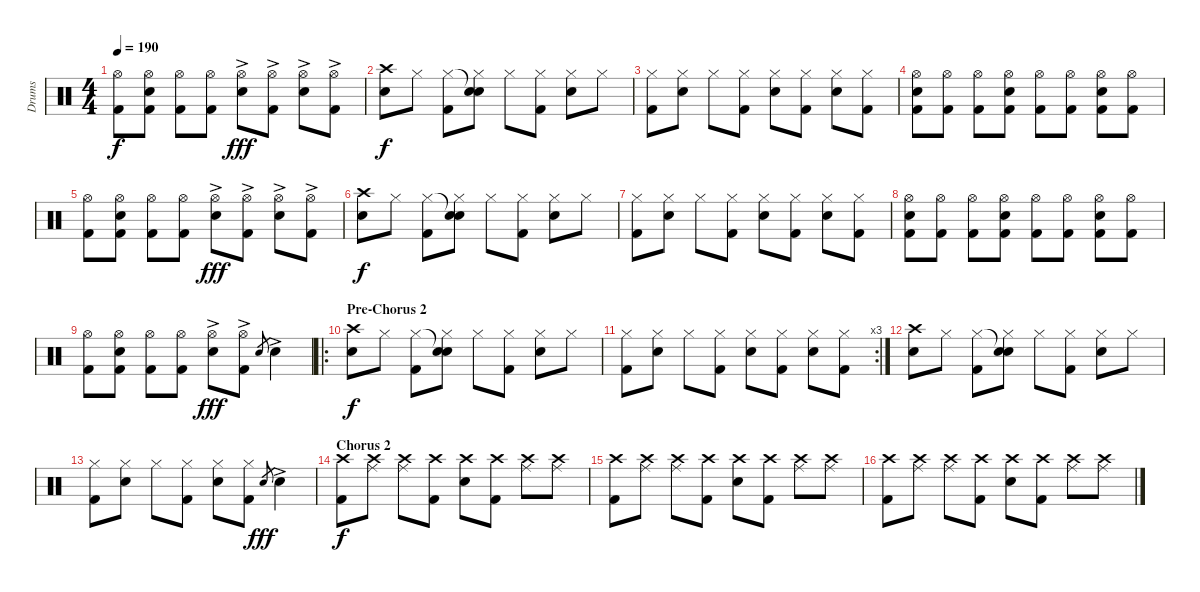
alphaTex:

\track ("Drums" "Drums") {instrument percussion}
\staff {score}
\articulation defaults
\ts (4 4)
\tempo 190
\clef neutral
\ks c
("Hi-Hat (open)" "Kick (hit) 2").8{dy f} ("Hi-Hat (open)" "Electric Snare (hit)" "Kick (hit) 2").8 ("Hi-Hat (open)" "Kick (hit) 2").8 ("Hi-Hat (open)" "Kick (hit) 2").8 ("Hi-Hat (open)" "Electric Snare (hit)"{ac}).8{dy fff} ("Hi-Hat (open)" "Kick (hit) 2"{ac}).8 ("Hi-Hat (open)" "Electric Snare (hit)"{ac}).8 ("Hi-Hat (open)" "Kick (hit) 2"{ac}).8 |
("Crash high (hit)" "Electric Snare (hit)").8{dy f} "Hi-Hat (closed)".8 ("Hi-Hat (closed)" "Kick (hit) 2").8 ("Snare (hit)"{t} "Hi-Hat (closed)" "Electric Snare (hit)").8 "Hi-Hat (closed)".8 ("Hi-Hat (closed)" "Kick (hit) 2").8 ("Hi-Hat (closed)" "Electric Snare (hit)").8 "Hi-Hat (closed)".8 |
("Hi-Hat (closed)" "Kick (hit) 2").8 ("Hi-Hat (closed)" "Electric Snare (hit)").8 "Hi-Hat (closed)".8 ("Hi-Hat (closed)" "Kick (hit) 2").8 ("Hi-Hat (closed)" "Electric Snare (hit)").8 ("Hi-Hat (closed)" "Kick (hit) 2").8 ("Hi-Hat (closed)" "Electric Snare (hit)").8 ("Hi-Hat (closed)" "Kick (hit) 2").8 |
("Hi-Hat (open)" "Electric Snare (hit)" "Kick (hit) 2").8 ("Hi-Hat (open)" "Kick (hit) 2").8 ("Hi-Hat (open)" "Kick (hit) 2").8 ("Hi-Hat (open)" "Electric Snare (hit)" "Kick (hit) 2").8 ("Hi-Hat (open)" "Kick (hit) 2").8 ("Hi-Hat (open)" "Kick (hit) 2").8 ("Hi-Hat (open)" "Electric Snare (hit)" "Kick (hit) 2").8 ("Hi-Hat (open)" "Kick (hit) 2").8 |
("Hi-Hat (open)" "Kick (hit) 2").8 ("Hi-Hat (open)" "Electric Snare (hit)" "Kick (hit) 2").8 ("Hi-Hat (open)" "Kick (hit) 2").8 ("Hi-Hat (open)" "Kick (hit) 2").8 ("Hi-Hat (open)" "Electric Snare (hit)"{ac}).8{dy fff} ("Hi-Hat (open)" "Kick (hit) 2"{ac}).8 ("Hi-Hat (open)" "Electric Snare (hit)"{ac}).8 ("Hi-Hat (open)" "Kick (hit) 2"{ac}).8 |
("Crash high (hit)" "Electric Snare (hit)").8{dy f} "Hi-Hat (closed)".8 ("Hi-Hat (closed)" "Kick (hit) 2").8 ("Snare (hit)"{t} "Hi-Hat (closed)" "Electric Snare (hit)").8 "Hi-Hat (closed)".8 ("Hi-Hat (closed)" "Kick (hit) 2").8 ("Hi-Hat (closed)" "Electric Snare (hit)").8 "Hi-Hat (closed)".8 |
("Hi-Hat (closed)" "Kick (hit) 2").8 ("Hi-Hat (closed)" "Electric Snare (hit)").8 "Hi-Hat (closed)".8 ("Hi-Hat (closed)" "Kick (hit) 2").8 ("Hi-Hat (closed)" "Electric Snare (hit)").8 ("Hi-Hat (closed)" "Kick (hit) 2").8 ("Hi-Hat (closed)" "Electric Snare (hit)").8 ("Hi-Hat (closed)" "Kick (hit) 2").8 |
("Hi-Hat (open)" "Electric Snare (hit)" "Kick (hit) 2").8 ("Hi-Hat (open)" "Kick (hit) 2").8 ("Hi-Hat (open)" "Kick (hit) 2").8 ("Hi-Hat (open)" "Electric Snare (hit)" "Kick (hit) 2").8 ("Hi-Hat (open)" "Kick (hit) 2").8 ("Hi-Hat (open)" "Kick (hit) 2").8 ("Hi-Hat (open)" "Electric Snare (hit)" "Kick (hit) 2").8 ("Hi-Hat (open)" "Kick (hit) 2").8 |
("Hi-Hat (open)" "Kick (hit) 2").8 ("Hi-Hat (open)" "Electric Snare (hit)" "Kick (hit) 2").8 ("Hi-Hat (open)" "Kick (hit) 2").8 ("Hi-Hat (open)" "Kick (hit) 2").8 ("Hi-Hat (open)" "Electric Snare (hit)"{ac}).8{dy fff} ("Hi-Hat (open)" "Kick (hit) 2"{ac}).8 "Electric Snare (hit)".8{gr} "Electric Snare (hit)"{ac}.4 |
\ro
\section ("" "Pre-Chorus 2")
("Crash high (hit)" "Electric Snare (hit)").8{dy f} "Hi-Hat (closed)".8 ("Hi-Hat (closed)" "Kick (hit) 2").8 ("Snare (hit)"{t} "Hi-Hat (closed)" "Electric Snare (hit)").8 "Hi-Hat (closed)".8 ("Hi-Hat (closed)" "Kick (hit) 2").8 ("Hi-Hat (closed)" "Electric Snare (hit)").8 "Hi-Hat (closed)".8 |
\rc 3
("Hi-Hat (closed)" "Kick (hit) 2").8 ("Hi-Hat (closed)" "Electric Snare (hit)").8 "Hi-Hat (closed)".8 ("Hi-Hat (closed)" "Kick (hit) 2").8 ("Hi-Hat (closed)" "Electric Snare (hit)").8 ("Hi-Hat (closed)" "Kick (hit) 2").8 ("Hi-Hat (closed)" "Electric Snare (hit)").8 ("Hi-Hat (closed)" "Kick (hit) 2").8 |
("Crash high (hit)" "Electric Snare (hit)").8 "Hi-Hat (closed)".8 ("Hi-Hat (closed)" "Kick (hit) 2").8 ("Snare (hit)"{t} "Hi-Hat (closed)" "Electric Snare (hit)").8 "Hi-Hat (closed)".8 ("Hi-Hat (closed)" "Kick (hit) 2").8 ("Hi-Hat (closed)" "Electric Snare (hit)").8 "Hi-Hat (closed)".8 |
("Hi-Hat (closed)" "Kick (hit) 2").8 ("Hi-Hat (closed)" "Electric Snare (hit)").8 "Hi-Hat (closed)".8 ("Hi-Hat (closed)" "Kick (hit) 2").8 ("Hi-Hat (closed)" "Electric Snare (hit)").8 ("Hi-Hat (closed)" "Kick (hit) 2").8 "Electric Snare (hit)".8{gr dy fff} "Electric Snare (hit)"{ac}.4 |
\section ("" "Chorus 2")
("Crash high (hit)" "Kick (hit) 2").8{dy f} ("Crash high (hit)" "Ride (middle)").8 ("Crash high (hit)" "Ride (middle)").8 ("Crash high (hit)" "Kick (hit) 2").8 ("Crash high (hit)" "Electric Snare (hit)").8 ("Crash high (hit)" "Kick (hit) 2").8 ("Crash high (hit)" "Ride (middle)").8 ("Crash high (hit)" "Ride (middle)").8 |
("Crash high (hit)" "Kick (hit) 2").8 ("Crash high (hit)" "Ride (middle)").8 ("Crash high (hit)" "Ride (middle)").8 ("Crash high (hit)" "Kick (hit) 2").8 ("Crash high (hit)" "Electric Snare (hit)").8 ("Crash high (hit)" "Kick (hit) 2").8 ("Crash high (hit)" "Ride (middle)").8 ("Crash high (hit)" "Ride (middle)").8 |
("Crash high (hit)" "Kick (hit) 2").8 ("Crash high (hit)" "Ride (middle)").8 ("Crash high (hit)" "Ride (middle)").8 ("Crash high (hit)" "Kick (hit) 2").8 ("Crash high (hit)" "Electric Snare (hit)").8 ("Crash high (hit)" "Kick (hit) 2").8 ("Crash high (hit)" "Ride (middle)").8 ("Crash high (hit)" "Ride (middle)").8
